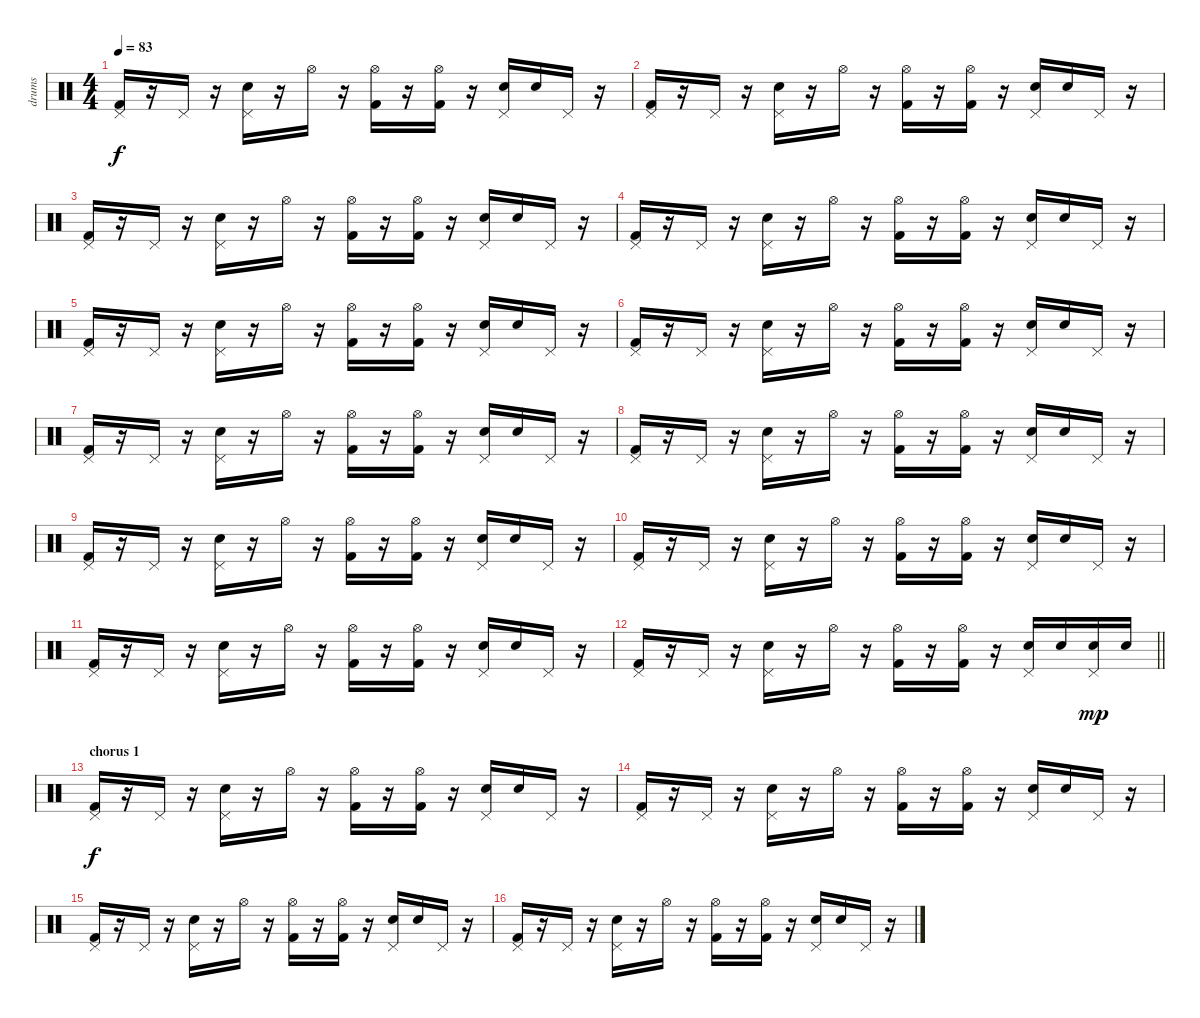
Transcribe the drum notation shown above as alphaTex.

\track ("drums" "drums") {instrument percussion}
\staff {score}
\articulation defaults
\ts (4 4)
\tempo 83
\clef neutral
\ks c
("Kick (hit) 2" "Pedal Hi-Hat (hit)").16{dy f} r.16 "Pedal Hi-Hat (hit)".16 r.16 ("Electric Snare (hit)" "Pedal Hi-Hat (hit)").16 r.16 "Hi-Hat (open)".16 r.16 ("Kick (hit) 2" "Hi-Hat (open)").16 r.16 ("Kick (hit) 2" "Hi-Hat (open)").16 r.16 ("Electric Snare (hit)" "Pedal Hi-Hat (hit)").16 "Electric Snare (hit)".16 "Pedal Hi-Hat (hit)".16 r.16 |
("Kick (hit) 2" "Pedal Hi-Hat (hit)").16 r.16 "Pedal Hi-Hat (hit)".16 r.16 ("Electric Snare (hit)" "Pedal Hi-Hat (hit)").16 r.16 "Hi-Hat (open)".16 r.16 ("Kick (hit) 2" "Hi-Hat (open)").16 r.16 ("Kick (hit) 2" "Hi-Hat (open)").16 r.16 ("Electric Snare (hit)" "Pedal Hi-Hat (hit)").16 "Electric Snare (hit)".16 "Pedal Hi-Hat (hit)".16 r.16 |
("Kick (hit) 2" "Pedal Hi-Hat (hit)").16 r.16 "Pedal Hi-Hat (hit)".16 r.16 ("Electric Snare (hit)" "Pedal Hi-Hat (hit)").16 r.16 "Hi-Hat (open)".16 r.16 ("Kick (hit) 2" "Hi-Hat (open)").16 r.16 ("Kick (hit) 2" "Hi-Hat (open)").16 r.16 ("Electric Snare (hit)" "Pedal Hi-Hat (hit)").16 "Electric Snare (hit)".16 "Pedal Hi-Hat (hit)".16 r.16 |
("Kick (hit) 2" "Pedal Hi-Hat (hit)").16 r.16 "Pedal Hi-Hat (hit)".16 r.16 ("Electric Snare (hit)" "Pedal Hi-Hat (hit)").16 r.16 "Hi-Hat (open)".16 r.16 ("Kick (hit) 2" "Hi-Hat (open)").16 r.16 ("Kick (hit) 2" "Hi-Hat (open)").16 r.16 ("Electric Snare (hit)" "Pedal Hi-Hat (hit)").16 "Electric Snare (hit)".16 "Pedal Hi-Hat (hit)".16 r.16 |
("Kick (hit) 2" "Pedal Hi-Hat (hit)").16 r.16 "Pedal Hi-Hat (hit)".16 r.16 ("Electric Snare (hit)" "Pedal Hi-Hat (hit)").16 r.16 "Hi-Hat (open)".16 r.16 ("Kick (hit) 2" "Hi-Hat (open)").16 r.16 ("Kick (hit) 2" "Hi-Hat (open)").16 r.16 ("Electric Snare (hit)" "Pedal Hi-Hat (hit)").16 "Electric Snare (hit)".16 "Pedal Hi-Hat (hit)".16 r.16 |
("Kick (hit) 2" "Pedal Hi-Hat (hit)").16 r.16 "Pedal Hi-Hat (hit)".16 r.16 ("Electric Snare (hit)" "Pedal Hi-Hat (hit)").16 r.16 "Hi-Hat (open)".16 r.16 ("Kick (hit) 2" "Hi-Hat (open)").16 r.16 ("Kick (hit) 2" "Hi-Hat (open)").16 r.16 ("Electric Snare (hit)" "Pedal Hi-Hat (hit)").16 "Electric Snare (hit)".16 "Pedal Hi-Hat (hit)".16 r.16 |
("Kick (hit) 2" "Pedal Hi-Hat (hit)").16 r.16 "Pedal Hi-Hat (hit)".16 r.16 ("Electric Snare (hit)" "Pedal Hi-Hat (hit)").16 r.16 "Hi-Hat (open)".16 r.16 ("Kick (hit) 2" "Hi-Hat (open)").16 r.16 ("Kick (hit) 2" "Hi-Hat (open)").16 r.16 ("Electric Snare (hit)" "Pedal Hi-Hat (hit)").16 "Electric Snare (hit)".16 "Pedal Hi-Hat (hit)".16 r.16 |
("Kick (hit) 2" "Pedal Hi-Hat (hit)").16 r.16 "Pedal Hi-Hat (hit)".16 r.16 ("Electric Snare (hit)" "Pedal Hi-Hat (hit)").16 r.16 "Hi-Hat (open)".16 r.16 ("Kick (hit) 2" "Hi-Hat (open)").16 r.16 ("Kick (hit) 2" "Hi-Hat (open)").16 r.16 ("Electric Snare (hit)" "Pedal Hi-Hat (hit)").16 "Electric Snare (hit)".16 "Pedal Hi-Hat (hit)".16 r.16 |
("Kick (hit) 2" "Pedal Hi-Hat (hit)").16 r.16 "Pedal Hi-Hat (hit)".16 r.16 ("Electric Snare (hit)" "Pedal Hi-Hat (hit)").16 r.16 "Hi-Hat (open)".16 r.16 ("Kick (hit) 2" "Hi-Hat (open)").16 r.16 ("Kick (hit) 2" "Hi-Hat (open)").16 r.16 ("Electric Snare (hit)" "Pedal Hi-Hat (hit)").16 "Electric Snare (hit)".16 "Pedal Hi-Hat (hit)".16 r.16 |
("Kick (hit) 2" "Pedal Hi-Hat (hit)").16 r.16 "Pedal Hi-Hat (hit)".16 r.16 ("Electric Snare (hit)" "Pedal Hi-Hat (hit)").16 r.16 "Hi-Hat (open)".16 r.16 ("Kick (hit) 2" "Hi-Hat (open)").16 r.16 ("Kick (hit) 2" "Hi-Hat (open)").16 r.16 ("Electric Snare (hit)" "Pedal Hi-Hat (hit)").16 "Electric Snare (hit)".16 "Pedal Hi-Hat (hit)".16 r.16 |
("Kick (hit) 2" "Pedal Hi-Hat (hit)").16 r.16 "Pedal Hi-Hat (hit)".16 r.16 ("Electric Snare (hit)" "Pedal Hi-Hat (hit)").16 r.16 "Hi-Hat (open)".16 r.16 ("Kick (hit) 2" "Hi-Hat (open)").16 r.16 ("Kick (hit) 2" "Hi-Hat (open)").16 r.16 ("Electric Snare (hit)" "Pedal Hi-Hat (hit)").16 "Electric Snare (hit)".16 "Pedal Hi-Hat (hit)".16 r.16 |
\barLineRight lightlight
("Kick (hit) 2" "Pedal Hi-Hat (hit)").16 r.16 "Pedal Hi-Hat (hit)".16 r.16 ("Electric Snare (hit)" "Pedal Hi-Hat (hit)").16 r.16 "Hi-Hat (open)".16 r.16 ("Kick (hit) 2" "Hi-Hat (open)").16 r.16 ("Kick (hit) 2" "Hi-Hat (open)").16 r.16 ("Electric Snare (hit)" "Pedal Hi-Hat (hit)").16 "Electric Snare (hit)".16 ("Electric Snare (hit)" "Pedal Hi-Hat (hit)").16{dy mp} "Electric Snare (hit)".16 |
\section ("" "chorus 1")
("Kick (hit) 2" "Pedal Hi-Hat (hit)").16{dy f} r.16 "Pedal Hi-Hat (hit)".16 r.16 ("Electric Snare (hit)" "Pedal Hi-Hat (hit)").16 r.16 "Hi-Hat (open)".16 r.16 ("Kick (hit) 2" "Hi-Hat (open)").16 r.16 ("Kick (hit) 2" "Hi-Hat (open)").16 r.16 ("Electric Snare (hit)" "Pedal Hi-Hat (hit)").16 "Electric Snare (hit)".16 "Pedal Hi-Hat (hit)".16 r.16 |
("Kick (hit) 2" "Pedal Hi-Hat (hit)").16 r.16 "Pedal Hi-Hat (hit)".16 r.16 ("Electric Snare (hit)" "Pedal Hi-Hat (hit)").16 r.16 "Hi-Hat (open)".16 r.16 ("Kick (hit) 2" "Hi-Hat (open)").16 r.16 ("Kick (hit) 2" "Hi-Hat (open)").16 r.16 ("Electric Snare (hit)" "Pedal Hi-Hat (hit)").16 "Electric Snare (hit)".16 "Pedal Hi-Hat (hit)".16 r.16 |
("Kick (hit) 2" "Pedal Hi-Hat (hit)").16 r.16 "Pedal Hi-Hat (hit)".16 r.16 ("Electric Snare (hit)" "Pedal Hi-Hat (hit)").16 r.16 "Hi-Hat (open)".16 r.16 ("Kick (hit) 2" "Hi-Hat (open)").16 r.16 ("Kick (hit) 2" "Hi-Hat (open)").16 r.16 ("Electric Snare (hit)" "Pedal Hi-Hat (hit)").16 "Electric Snare (hit)".16 "Pedal Hi-Hat (hit)".16 r.16 |
("Kick (hit) 2" "Pedal Hi-Hat (hit)").16 r.16 "Pedal Hi-Hat (hit)".16 r.16 ("Electric Snare (hit)" "Pedal Hi-Hat (hit)").16 r.16 "Hi-Hat (open)".16 r.16 ("Kick (hit) 2" "Hi-Hat (open)").16 r.16 ("Kick (hit) 2" "Hi-Hat (open)").16 r.16 ("Electric Snare (hit)" "Pedal Hi-Hat (hit)").16 "Electric Snare (hit)".16 "Pedal Hi-Hat (hit)".16 r.16
